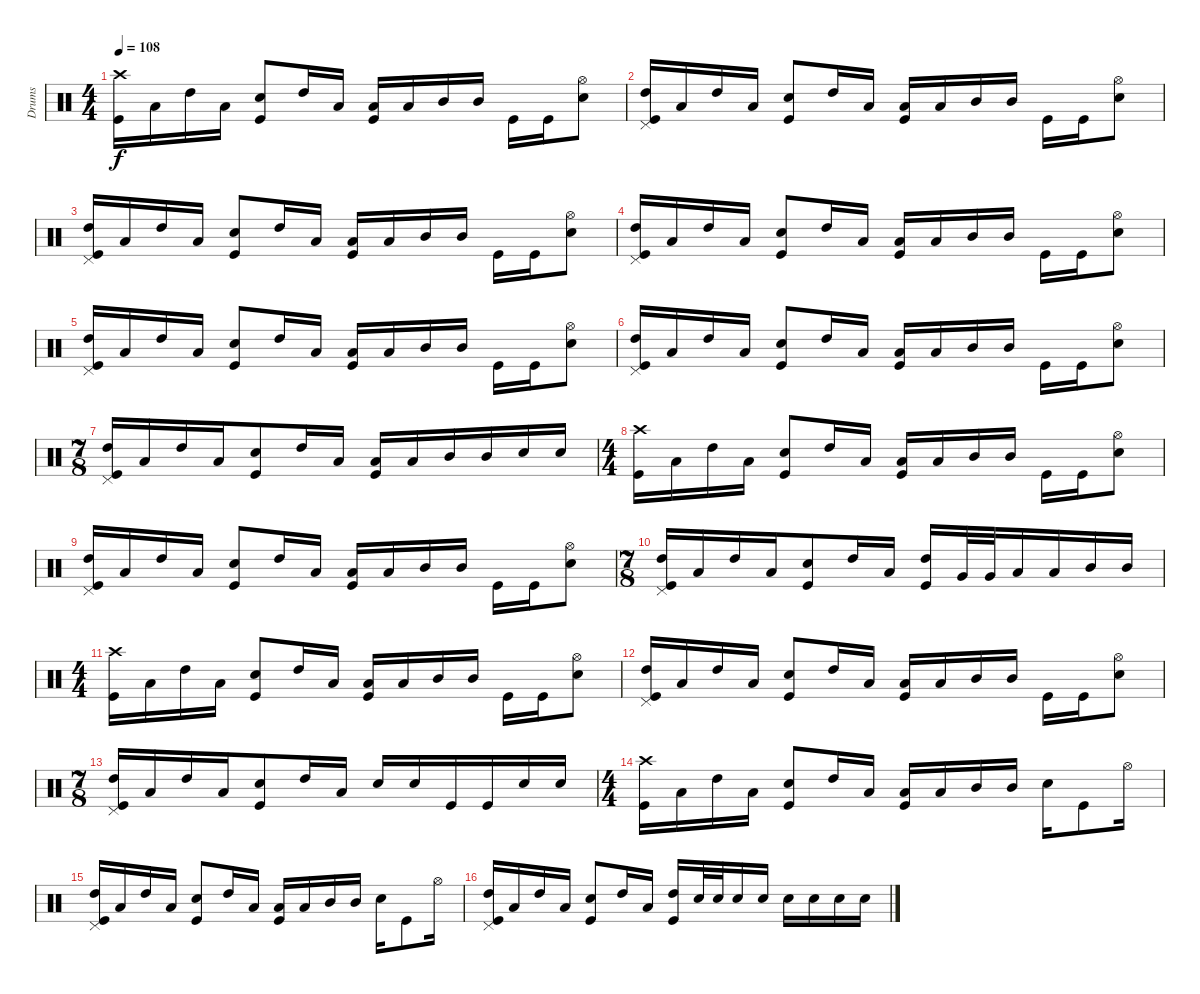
\track ("Drums" "Drums") {instrument percussion}
\staff {score}
\articulation defaults
\ts (4 4)
\tempo 108
\clef neutral
\ks c
("Kick (hit)" "Crash high (hit)").16{dy f} "Low Tom (hit)".16 "High Tom (hit)".16 "Low Tom (hit)".16 ("Snare (hit) 2" "Kick (hit)").8 "High Tom (hit)".16 "Low Tom (hit)".16 ("Kick (hit)" "Low Tom (hit)").16 "Low Tom (hit)".16 "Mid Tom (hit)".16 "Mid Tom (hit)".16 "Kick (hit)".16 "Kick (hit)".16 ("Snare (hit) 2" "Hi-Hat (open)").8 |
("High Tom (hit)" "Kick (hit)" "Pedal Hi-Hat (hit)").16 "Low Tom (hit)".16 "High Tom (hit)".16 "Low Tom (hit)".16 ("Snare (hit) 2" "Kick (hit)").8 "High Tom (hit)".16 "Low Tom (hit)".16 ("Kick (hit)" "Low Tom (hit)").16 "Low Tom (hit)".16 "Mid Tom (hit)".16 "Mid Tom (hit)".16 "Kick (hit)".16 "Kick (hit)".16 ("Snare (hit) 2" "Hi-Hat (open)").8 |
("High Tom (hit)" "Kick (hit)" "Pedal Hi-Hat (hit)").16 "Low Tom (hit)".16 "High Tom (hit)".16 "Low Tom (hit)".16 ("Snare (hit) 2" "Kick (hit)").8 "High Tom (hit)".16 "Low Tom (hit)".16 ("Kick (hit)" "Low Tom (hit)").16 "Low Tom (hit)".16 "Mid Tom (hit)".16 "Mid Tom (hit)".16 "Kick (hit)".16 "Kick (hit)".16 ("Snare (hit) 2" "Hi-Hat (open)").8 |
("High Tom (hit)" "Kick (hit)" "Pedal Hi-Hat (hit)").16 "Low Tom (hit)".16 "High Tom (hit)".16 "Low Tom (hit)".16 ("Snare (hit) 2" "Kick (hit)").8 "High Tom (hit)".16 "Low Tom (hit)".16 ("Kick (hit)" "Low Tom (hit)").16 "Low Tom (hit)".16 "Mid Tom (hit)".16 "Mid Tom (hit)".16 "Kick (hit)".16 "Kick (hit)".16 ("Snare (hit) 2" "Hi-Hat (open)").8 |
("High Tom (hit)" "Kick (hit)" "Pedal Hi-Hat (hit)").16 "Low Tom (hit)".16 "High Tom (hit)".16 "Low Tom (hit)".16 ("Snare (hit) 2" "Kick (hit)").8 "High Tom (hit)".16 "Low Tom (hit)".16 ("Kick (hit)" "Low Tom (hit)").16 "Low Tom (hit)".16 "Mid Tom (hit)".16 "Mid Tom (hit)".16 "Kick (hit)".16 "Kick (hit)".16 ("Snare (hit) 2" "Hi-Hat (open)").8 |
("High Tom (hit)" "Kick (hit)" "Pedal Hi-Hat (hit)").16 "Low Tom (hit)".16 "High Tom (hit)".16 "Low Tom (hit)".16 ("Snare (hit) 2" "Kick (hit)").8 "High Tom (hit)".16 "Low Tom (hit)".16 ("Kick (hit)" "Low Tom (hit)").16 "Low Tom (hit)".16 "Mid Tom (hit)".16 "Mid Tom (hit)".16 "Kick (hit)".16 "Kick (hit)".16 ("Snare (hit) 2" "Hi-Hat (open)").8 |
\ts (7 8)
("High Tom (hit)" "Kick (hit)" "Pedal Hi-Hat (hit)").16 "Low Tom (hit)".16 "High Tom (hit)".16 "Low Tom (hit)".16 ("Snare (hit) 2" "Kick (hit)").8 "High Tom (hit)".16 "Low Tom (hit)".16 ("Kick (hit)" "Low Tom (hit)").16 "Low Tom (hit)".16 "Mid Tom (hit)".16 "Mid Tom (hit)".16 "Snare (hit) 2".16 "Snare (hit) 2".16 |
\ts (4 4)
("Kick (hit)" "Crash high (hit)").16 "Low Tom (hit)".16 "High Tom (hit)".16 "Low Tom (hit)".16 ("Snare (hit) 2" "Kick (hit)").8 "High Tom (hit)".16 "Low Tom (hit)".16 ("Kick (hit)" "Low Tom (hit)").16 "Low Tom (hit)".16 "Mid Tom (hit)".16 "Mid Tom (hit)".16 "Kick (hit)".16 "Kick (hit)".16 ("Snare (hit) 2" "Hi-Hat (open)").8 |
("High Tom (hit)" "Kick (hit)" "Pedal Hi-Hat (hit)").16 "Low Tom (hit)".16 "High Tom (hit)".16 "Low Tom (hit)".16 ("Snare (hit) 2" "Kick (hit)").8 "High Tom (hit)".16 "Low Tom (hit)".16 ("Kick (hit)" "Low Tom (hit)").16 "Low Tom (hit)".16 "Mid Tom (hit)".16 "Mid Tom (hit)".16 "Kick (hit)".16 "Kick (hit)".16 ("Snare (hit) 2" "Hi-Hat (open)").8 |
\ts (7 8)
("High Tom (hit)" "Kick (hit)" "Pedal Hi-Hat (hit)").16 "Low Tom (hit)".16 "High Tom (hit)".16 "Low Tom (hit)".16 ("Snare (hit) 2" "Kick (hit)").8 "High Tom (hit)".16 "Low Tom (hit)".16 ("Kick (hit)" "High Tom (hit)").16 "Very Low Tom (hit)".32 "Very Low Tom (hit)".32 "Low Tom (hit)".16 "Low Tom (hit)".16 "Mid Tom (hit)".16 "Mid Tom (hit)".16 |
\ts (4 4)
("Kick (hit)" "Crash high (hit)").16 "Low Tom (hit)".16 "High Tom (hit)".16 "Low Tom (hit)".16 ("Snare (hit) 2" "Kick (hit)").8 "High Tom (hit)".16 "Low Tom (hit)".16 ("Kick (hit)" "Low Tom (hit)").16 "Low Tom (hit)".16 "Mid Tom (hit)".16 "Mid Tom (hit)".16 "Kick (hit)".16 "Kick (hit)".16 ("Snare (hit) 2" "Hi-Hat (open)").8 |
("High Tom (hit)" "Kick (hit)" "Pedal Hi-Hat (hit)").16 "Low Tom (hit)".16 "High Tom (hit)".16 "Low Tom (hit)".16 ("Snare (hit) 2" "Kick (hit)").8 "High Tom (hit)".16 "Low Tom (hit)".16 ("Kick (hit)" "Low Tom (hit)").16 "Low Tom (hit)".16 "Mid Tom (hit)".16 "Mid Tom (hit)".16 "Kick (hit)".16 "Kick (hit)".16 ("Snare (hit) 2" "Hi-Hat (open)").8 |
\ts (7 8)
("High Tom (hit)" "Kick (hit)" "Pedal Hi-Hat (hit)").16 "Low Tom (hit)".16 "High Tom (hit)".16 "Low Tom (hit)".16 ("Snare (hit) 2" "Kick (hit)").8 "High Tom (hit)".16 "Low Tom (hit)".16 "Snare (hit) 2".16 "Snare (hit) 2".16 "Kick (hit)".16 "Kick (hit)".16 "Snare (hit) 2".16 "Snare (hit) 2".16 |
\ts (4 4)
("Kick (hit)" "Crash high (hit)").16 "Low Tom (hit)".16 "High Tom (hit)".16 "Low Tom (hit)".16 ("Snare (hit) 2" "Kick (hit)").8 "High Tom (hit)".16 "Low Tom (hit)".16 ("Kick (hit)" "Low Tom (hit)").16 "Low Tom (hit)".16 "Mid Tom (hit)".16 "Mid Tom (hit)".16 "Electric Snare (hit)".16 "Kick (hit)".8 "Hi-Hat (open)".16 |
("High Tom (hit)" "Kick (hit)" "Pedal Hi-Hat (hit)").16 "Low Tom (hit)".16 "High Tom (hit)".16 "Low Tom (hit)".16 ("Snare (hit) 2" "Kick (hit)").8 "High Tom (hit)".16 "Low Tom (hit)".16 ("Kick (hit)" "Low Tom (hit)").16 "Low Tom (hit)".16 "Mid Tom (hit)".16 "Mid Tom (hit)".16 "Electric Snare (hit)".16 "Kick (hit)".8 "Hi-Hat (open)".16 |
("High Tom (hit)" "Kick (hit)" "Pedal Hi-Hat (hit)").16 "Low Tom (hit)".16 "High Tom (hit)".16 "Low Tom (hit)".16 ("Snare (hit) 2" "Kick (hit)").8 "High Tom (hit)".16 "Low Tom (hit)".16 ("High Tom (hit)" "Kick (hit)").16 "Snare (hit) 2".32 "Snare (hit) 2".32 "Snare (hit) 2".16 "Snare (hit) 2".16 "Snare (hit) 2".16 "Snare (hit) 2".16 "Snare (hit) 2".16 "Snare (hit) 2".16
